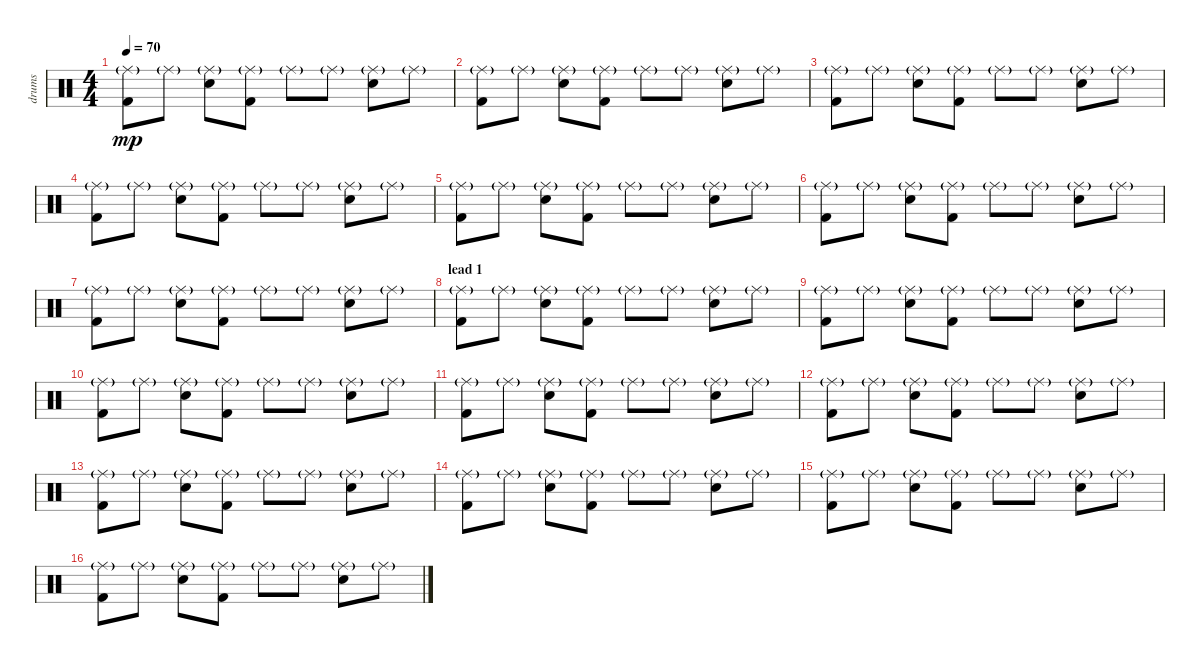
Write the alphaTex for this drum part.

\track ("drums" "drums") {instrument percussion}
\staff {score}
\articulation defaults
\ts (4 4)
\tempo 70
\clef neutral
\ks c
("Kick (hit) 2" "Ride (middle)"{g}).8{dy mp} "Ride (middle)"{g}.8 ("Snare (hit) 2" "Ride (middle)"{g}).8 ("Kick (hit) 2" "Ride (middle)"{g}).8 "Ride (middle)"{g}.8 "Ride (middle)"{g}.8 ("Snare (hit) 2" "Ride (middle)"{g}).8 "Ride (middle)"{g}.8 |
("Kick (hit) 2" "Ride (middle)"{g}).8 "Ride (middle)"{g}.8 ("Snare (hit) 2" "Ride (middle)"{g}).8 ("Kick (hit) 2" "Ride (middle)"{g}).8 "Ride (middle)"{g}.8 "Ride (middle)"{g}.8 ("Snare (hit) 2" "Ride (middle)"{g}).8 "Ride (middle)"{g}.8 |
("Kick (hit) 2" "Ride (middle)"{g}).8 "Ride (middle)"{g}.8 ("Snare (hit) 2" "Ride (middle)"{g}).8 ("Kick (hit) 2" "Ride (middle)"{g}).8 "Ride (middle)"{g}.8 "Ride (middle)"{g}.8 ("Snare (hit) 2" "Ride (middle)"{g}).8 "Ride (middle)"{g}.8 |
("Kick (hit) 2" "Ride (middle)"{g}).8 "Ride (middle)"{g}.8 ("Snare (hit) 2" "Ride (middle)"{g}).8 ("Kick (hit) 2" "Ride (middle)"{g}).8 "Ride (middle)"{g}.8 "Ride (middle)"{g}.8 ("Snare (hit) 2" "Ride (middle)"{g}).8 "Ride (middle)"{g}.8 |
("Kick (hit) 2" "Ride (middle)"{g}).8 "Ride (middle)"{g}.8 ("Snare (hit) 2" "Ride (middle)"{g}).8 ("Kick (hit) 2" "Ride (middle)"{g}).8 "Ride (middle)"{g}.8 "Ride (middle)"{g}.8 ("Snare (hit) 2" "Ride (middle)"{g}).8 "Ride (middle)"{g}.8 |
("Kick (hit) 2" "Ride (middle)"{g}).8 "Ride (middle)"{g}.8 ("Snare (hit) 2" "Ride (middle)"{g}).8 ("Kick (hit) 2" "Ride (middle)"{g}).8 "Ride (middle)"{g}.8 "Ride (middle)"{g}.8 ("Snare (hit) 2" "Ride (middle)"{g}).8 "Ride (middle)"{g}.8 |
("Kick (hit) 2" "Ride (middle)"{g}).8 "Ride (middle)"{g}.8 ("Snare (hit) 2" "Ride (middle)"{g}).8 ("Kick (hit) 2" "Ride (middle)"{g}).8 "Ride (middle)"{g}.8 "Ride (middle)"{g}.8 ("Snare (hit) 2" "Ride (middle)"{g}).8 "Ride (middle)"{g}.8 |
\section ("" "lead 1")
("Kick (hit) 2" "Ride (middle)"{g}).8 "Ride (middle)"{g}.8 ("Snare (hit) 2" "Ride (middle)"{g}).8 ("Kick (hit) 2" "Ride (middle)"{g}).8 "Ride (middle)"{g}.8 "Ride (middle)"{g}.8 ("Snare (hit) 2" "Ride (middle)"{g}).8 "Ride (middle)"{g}.8 |
("Kick (hit) 2" "Ride (middle)"{g}).8 "Ride (middle)"{g}.8 ("Snare (hit) 2" "Ride (middle)"{g}).8 ("Kick (hit) 2" "Ride (middle)"{g}).8 "Ride (middle)"{g}.8 "Ride (middle)"{g}.8 ("Snare (hit) 2" "Ride (middle)"{g}).8 "Ride (middle)"{g}.8 |
("Kick (hit) 2" "Ride (middle)"{g}).8 "Ride (middle)"{g}.8 ("Snare (hit) 2" "Ride (middle)"{g}).8 ("Kick (hit) 2" "Ride (middle)"{g}).8 "Ride (middle)"{g}.8 "Ride (middle)"{g}.8 ("Snare (hit) 2" "Ride (middle)"{g}).8 "Ride (middle)"{g}.8 |
("Kick (hit) 2" "Ride (middle)"{g}).8 "Ride (middle)"{g}.8 ("Snare (hit) 2" "Ride (middle)"{g}).8 ("Kick (hit) 2" "Ride (middle)"{g}).8 "Ride (middle)"{g}.8 "Ride (middle)"{g}.8 ("Snare (hit) 2" "Ride (middle)"{g}).8 "Ride (middle)"{g}.8 |
("Kick (hit) 2" "Ride (middle)"{g}).8 "Ride (middle)"{g}.8 ("Snare (hit) 2" "Ride (middle)"{g}).8 ("Kick (hit) 2" "Ride (middle)"{g}).8 "Ride (middle)"{g}.8 "Ride (middle)"{g}.8 ("Snare (hit) 2" "Ride (middle)"{g}).8 "Ride (middle)"{g}.8 |
("Kick (hit) 2" "Ride (middle)"{g}).8 "Ride (middle)"{g}.8 ("Snare (hit) 2" "Ride (middle)"{g}).8 ("Kick (hit) 2" "Ride (middle)"{g}).8 "Ride (middle)"{g}.8 "Ride (middle)"{g}.8 ("Snare (hit) 2" "Ride (middle)"{g}).8 "Ride (middle)"{g}.8 |
("Kick (hit) 2" "Ride (middle)"{g}).8 "Ride (middle)"{g}.8 ("Snare (hit) 2" "Ride (middle)"{g}).8 ("Kick (hit) 2" "Ride (middle)"{g}).8 "Ride (middle)"{g}.8 "Ride (middle)"{g}.8 ("Snare (hit) 2" "Ride (middle)"{g}).8 "Ride (middle)"{g}.8 |
("Kick (hit) 2" "Ride (middle)"{g}).8 "Ride (middle)"{g}.8 ("Snare (hit) 2" "Ride (middle)"{g}).8 ("Kick (hit) 2" "Ride (middle)"{g}).8 "Ride (middle)"{g}.8 "Ride (middle)"{g}.8 ("Snare (hit) 2" "Ride (middle)"{g}).8 "Ride (middle)"{g}.8 |
("Kick (hit) 2" "Ride (middle)"{g}).8 "Ride (middle)"{g}.8 ("Snare (hit) 2" "Ride (middle)"{g}).8 ("Kick (hit) 2" "Ride (middle)"{g}).8 "Ride (middle)"{g}.8 "Ride (middle)"{g}.8 ("Snare (hit) 2" "Ride (middle)"{g}).8 "Ride (middle)"{g}.8
